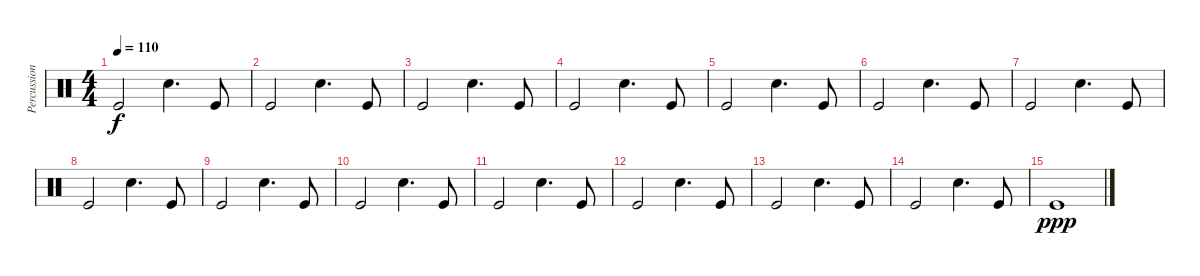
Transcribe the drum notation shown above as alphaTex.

\track ("Percussion" "Percussion") {instrument percussion}
\staff {score}
\articulation defaults
\ts (4 4)
\tempo 110
\clef neutral
\ks c "Kick (hit)".2{dy f} "Electric Snare (hit)".4{d} "Kick (hit)".8
|
"Kick (hit)".2 "Electric Snare (hit)".4{d} "Kick (hit)".8 |
"Kick (hit)".2 "Electric Snare (hit)".4{d} "Kick (hit)".8 |
"Kick (hit)".2 "Electric Snare (hit)".4{d} "Kick (hit)".8 |
"Kick (hit)".2 "Electric Snare (hit)".4{d} "Kick (hit)".8 |
"Kick (hit)".2 "Electric Snare (hit)".4{d} "Kick (hit)".8 |
"Kick (hit)".2 "Electric Snare (hit)".4{d} "Kick (hit)".8 |
"Kick (hit)".2 "Electric Snare (hit)".4{d} "Kick (hit)".8 |
"Kick (hit)".2 "Electric Snare (hit)".4{d} "Kick (hit)".8 |
"Kick (hit)".2 "Electric Snare (hit)".4{d} "Kick (hit)".8 |
"Kick (hit)".2 "Electric Snare (hit)".4{d} "Kick (hit)".8 |
"Kick (hit)".2 "Electric Snare (hit)".4{d} "Kick (hit)".8 |
"Kick (hit)".2 "Electric Snare (hit)".4{d} "Kick (hit)".8 |
"Kick (hit)".2 "Electric Snare (hit)".4{d} "Kick (hit)".8 |
"Kick (hit)".1{dy ppp}
